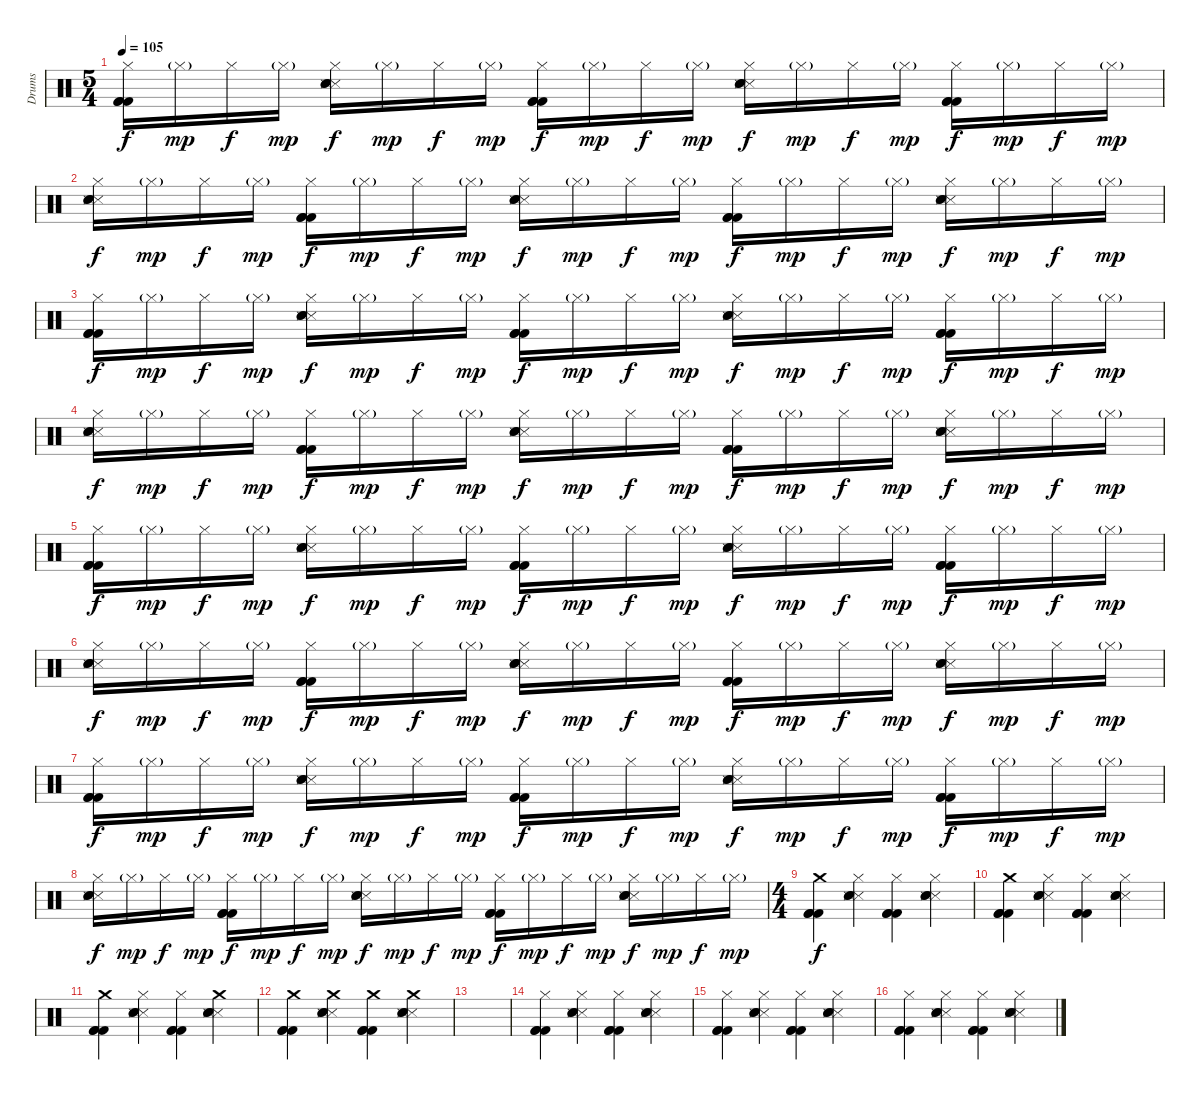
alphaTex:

\track ("Drums" "Drums") {instrument percussion}
\staff {score}
\articulation defaults
\ts (5 4)
\tempo 105
\clef neutral
\ks c
("Hi-Hat (closed)" "Kick (hit) 2" "Kick (hit) 2" "Kick (hit) 2").16{dy f} "Hi-Hat (closed)"{g}.16{dy mp} "Hi-Hat (closed)".16{dy f} "Hi-Hat (closed)"{g}.16{dy mp} ("Hi-Hat (closed)" "Snare (side stick) 3" "Snare (side stick) 3" "Electric Snare (hit)" "Snare (hit) 2").16{dy f} "Hi-Hat (closed)"{g}.16{dy mp} "Hi-Hat (closed)".16{dy f} "Hi-Hat (closed)"{g}.16{dy mp} ("Hi-Hat (closed)" "Kick (hit) 2" "Kick (hit) 2" "Kick (hit) 2").16{dy f} "Hi-Hat (closed)"{g}.16{dy mp} "Hi-Hat (closed)".16{dy f} "Hi-Hat (closed)"{g}.16{dy mp} ("Hi-Hat (closed)" "Snare (side stick) 3" "Snare (side stick) 3" "Electric Snare (hit)" "Snare (hit) 2").16{dy f} "Hi-Hat (closed)"{g}.16{dy mp} "Hi-Hat (closed)".16{dy f} "Hi-Hat (closed)"{g}.16{dy mp} ("Hi-Hat (closed)" "Kick (hit) 2" "Kick (hit) 2" "Kick (hit) 2").16{dy f} "Hi-Hat (closed)"{g}.16{dy mp} "Hi-Hat (closed)".16{dy f} "Hi-Hat (closed)"{g}.16{dy mp} |
("Hi-Hat (closed)" "Snare (side stick) 3" "Snare (side stick) 3" "Snare (hit) 2" "Electric Snare (hit)").16{dy f} "Hi-Hat (closed)"{g}.16{dy mp} "Hi-Hat (closed)".16{dy f} "Hi-Hat (closed)"{g}.16{dy mp} ("Hi-Hat (closed)" "Kick (hit) 2" "Kick (hit) 2" "Kick (hit) 2").16{dy f} "Hi-Hat (closed)"{g}.16{dy mp} "Hi-Hat (closed)".16{dy f} "Hi-Hat (closed)"{g}.16{dy mp} ("Hi-Hat (closed)" "Snare (side stick) 3" "Snare (side stick) 3" "Snare (hit) 2" "Electric Snare (hit)").16{dy f} "Hi-Hat (closed)"{g}.16{dy mp} "Hi-Hat (closed)".16{dy f} "Hi-Hat (closed)"{g}.16{dy mp} ("Hi-Hat (closed)" "Kick (hit) 2" "Kick (hit) 2" "Kick (hit) 2").16{dy f} "Hi-Hat (closed)"{g}.16{dy mp} "Hi-Hat (closed)".16{dy f} "Hi-Hat (closed)"{g}.16{dy mp} ("Hi-Hat (closed)" "Snare (side stick) 3" "Snare (side stick) 3" "Snare (hit) 2" "Electric Snare (hit)").16{dy f} "Hi-Hat (closed)"{g}.16{dy mp} "Hi-Hat (closed)".16{dy f} "Hi-Hat (closed)"{g}.16{dy mp} |
("Hi-Hat (closed)" "Kick (hit) 2" "Kick (hit) 2" "Kick (hit) 2").16{dy f} "Hi-Hat (closed)"{g}.16{dy mp} "Hi-Hat (closed)".16{dy f} "Hi-Hat (closed)"{g}.16{dy mp} ("Hi-Hat (closed)" "Snare (side stick) 3" "Snare (side stick) 3" "Electric Snare (hit)" "Snare (hit) 2").16{dy f} "Hi-Hat (closed)"{g}.16{dy mp} "Hi-Hat (closed)".16{dy f} "Hi-Hat (closed)"{g}.16{dy mp} ("Hi-Hat (closed)" "Kick (hit) 2" "Kick (hit) 2" "Kick (hit) 2").16{dy f} "Hi-Hat (closed)"{g}.16{dy mp} "Hi-Hat (closed)".16{dy f} "Hi-Hat (closed)"{g}.16{dy mp} ("Hi-Hat (closed)" "Snare (side stick) 3" "Snare (side stick) 3" "Electric Snare (hit)" "Snare (hit) 2").16{dy f} "Hi-Hat (closed)"{g}.16{dy mp} "Hi-Hat (closed)".16{dy f} "Hi-Hat (closed)"{g}.16{dy mp} ("Hi-Hat (closed)" "Kick (hit) 2" "Kick (hit) 2" "Kick (hit) 2").16{dy f} "Hi-Hat (closed)"{g}.16{dy mp} "Hi-Hat (closed)".16{dy f} "Hi-Hat (closed)"{g}.16{dy mp} |
("Hi-Hat (closed)" "Snare (side stick) 3" "Snare (side stick) 3" "Snare (hit) 2" "Electric Snare (hit)").16{dy f} "Hi-Hat (closed)"{g}.16{dy mp} "Hi-Hat (closed)".16{dy f} "Hi-Hat (closed)"{g}.16{dy mp} ("Hi-Hat (closed)" "Kick (hit) 2" "Kick (hit) 2" "Kick (hit) 2").16{dy f} "Hi-Hat (closed)"{g}.16{dy mp} "Hi-Hat (closed)".16{dy f} "Hi-Hat (closed)"{g}.16{dy mp} ("Hi-Hat (closed)" "Snare (side stick) 3" "Snare (side stick) 3" "Snare (hit) 2" "Electric Snare (hit)").16{dy f} "Hi-Hat (closed)"{g}.16{dy mp} "Hi-Hat (closed)".16{dy f} "Hi-Hat (closed)"{g}.16{dy mp} ("Hi-Hat (closed)" "Kick (hit) 2" "Kick (hit) 2" "Kick (hit) 2").16{dy f} "Hi-Hat (closed)"{g}.16{dy mp} "Hi-Hat (closed)".16{dy f} "Hi-Hat (closed)"{g}.16{dy mp} ("Hi-Hat (closed)" "Snare (side stick) 3" "Snare (side stick) 3" "Snare (hit) 2" "Electric Snare (hit)").16{dy f} "Hi-Hat (closed)"{g}.16{dy mp} "Hi-Hat (closed)".16{dy f} "Hi-Hat (closed)"{g}.16{dy mp} |
("Hi-Hat (closed)" "Kick (hit) 2" "Kick (hit) 2" "Kick (hit) 2").16{dy f} "Hi-Hat (closed)"{g}.16{dy mp} "Hi-Hat (closed)".16{dy f} "Hi-Hat (closed)"{g}.16{dy mp} ("Hi-Hat (closed)" "Snare (side stick) 3" "Snare (side stick) 3" "Electric Snare (hit)" "Snare (hit) 2").16{dy f} "Hi-Hat (closed)"{g}.16{dy mp} "Hi-Hat (closed)".16{dy f} "Hi-Hat (closed)"{g}.16{dy mp} ("Hi-Hat (closed)" "Kick (hit) 2" "Kick (hit) 2" "Kick (hit) 2").16{dy f} "Hi-Hat (closed)"{g}.16{dy mp} "Hi-Hat (closed)".16{dy f} "Hi-Hat (closed)"{g}.16{dy mp} ("Hi-Hat (closed)" "Snare (side stick) 3" "Snare (side stick) 3" "Electric Snare (hit)" "Snare (hit) 2").16{dy f} "Hi-Hat (closed)"{g}.16{dy mp} "Hi-Hat (closed)".16{dy f} "Hi-Hat (closed)"{g}.16{dy mp} ("Hi-Hat (closed)" "Kick (hit) 2" "Kick (hit) 2" "Kick (hit) 2").16{dy f} "Hi-Hat (closed)"{g}.16{dy mp} "Hi-Hat (closed)".16{dy f} "Hi-Hat (closed)"{g}.16{dy mp} |
("Hi-Hat (closed)" "Snare (side stick) 3" "Snare (side stick) 3" "Snare (hit) 2" "Electric Snare (hit)").16{dy f} "Hi-Hat (closed)"{g}.16{dy mp} "Hi-Hat (closed)".16{dy f} "Hi-Hat (closed)"{g}.16{dy mp} ("Hi-Hat (closed)" "Kick (hit) 2" "Kick (hit) 2" "Kick (hit) 2").16{dy f} "Hi-Hat (closed)"{g}.16{dy mp} "Hi-Hat (closed)".16{dy f} "Hi-Hat (closed)"{g}.16{dy mp} ("Hi-Hat (closed)" "Snare (side stick) 3" "Snare (side stick) 3" "Snare (hit) 2" "Electric Snare (hit)").16{dy f} "Hi-Hat (closed)"{g}.16{dy mp} "Hi-Hat (closed)".16{dy f} "Hi-Hat (closed)"{g}.16{dy mp} ("Hi-Hat (closed)" "Kick (hit) 2" "Kick (hit) 2" "Kick (hit) 2").16{dy f} "Hi-Hat (closed)"{g}.16{dy mp} "Hi-Hat (closed)".16{dy f} "Hi-Hat (closed)"{g}.16{dy mp} ("Hi-Hat (closed)" "Snare (side stick) 3" "Snare (side stick) 3" "Snare (hit) 2" "Electric Snare (hit)").16{dy f} "Hi-Hat (closed)"{g}.16{dy mp} "Hi-Hat (closed)".16{dy f} "Hi-Hat (closed)"{g}.16{dy mp} |
("Hi-Hat (closed)" "Kick (hit) 2" "Kick (hit) 2" "Kick (hit) 2").16{dy f} "Hi-Hat (closed)"{g}.16{dy mp} "Hi-Hat (closed)".16{dy f} "Hi-Hat (closed)"{g}.16{dy mp} ("Hi-Hat (closed)" "Snare (side stick) 3" "Snare (side stick) 3" "Electric Snare (hit)" "Snare (hit) 2").16{dy f} "Hi-Hat (closed)"{g}.16{dy mp} "Hi-Hat (closed)".16{dy f} "Hi-Hat (closed)"{g}.16{dy mp} ("Hi-Hat (closed)" "Kick (hit) 2" "Kick (hit) 2" "Kick (hit) 2").16{dy f} "Hi-Hat (closed)"{g}.16{dy mp} "Hi-Hat (closed)".16{dy f} "Hi-Hat (closed)"{g}.16{dy mp} ("Hi-Hat (closed)" "Snare (side stick) 3" "Snare (side stick) 3" "Electric Snare (hit)" "Snare (hit) 2").16{dy f} "Hi-Hat (closed)"{g}.16{dy mp} "Hi-Hat (closed)".16{dy f} "Hi-Hat (closed)"{g}.16{dy mp} ("Hi-Hat (closed)" "Kick (hit) 2" "Kick (hit) 2" "Kick (hit) 2").16{dy f} "Hi-Hat (closed)"{g}.16{dy mp} "Hi-Hat (closed)".16{dy f} "Hi-Hat (closed)"{g}.16{dy mp} |
("Hi-Hat (closed)" "Snare (side stick) 3" "Snare (side stick) 3" "Snare (hit) 2" "Electric Snare (hit)").16{dy f} "Hi-Hat (closed)"{g}.16{dy mp} "Hi-Hat (closed)".16{dy f} "Hi-Hat (closed)"{g}.16{dy mp} ("Hi-Hat (closed)" "Kick (hit) 2" "Kick (hit) 2" "Kick (hit) 2").16{dy f} "Hi-Hat (closed)"{g}.16{dy mp} "Hi-Hat (closed)".16{dy f} "Hi-Hat (closed)"{g}.16{dy mp} ("Hi-Hat (closed)" "Snare (side stick) 3" "Snare (side stick) 3" "Snare (hit) 2" "Electric Snare (hit)").16{dy f} "Hi-Hat (closed)"{g}.16{dy mp} "Hi-Hat (closed)".16{dy f} "Hi-Hat (closed)"{g}.16{dy mp} ("Hi-Hat (closed)" "Kick (hit) 2" "Kick (hit) 2" "Kick (hit) 2").16{dy f} "Hi-Hat (closed)"{g}.16{dy mp} "Hi-Hat (closed)".16{dy f} "Hi-Hat (closed)"{g}.16{dy mp} ("Hi-Hat (closed)" "Snare (side stick) 3" "Snare (side stick) 3" "Snare (hit) 2" "Electric Snare (hit)").16{dy f} "Hi-Hat (closed)"{g}.16{dy mp} "Hi-Hat (closed)".16{dy f} "Hi-Hat (closed)"{g}.16{dy mp} |
\ts (4 4)
("Crash medium (hit)" "Kick (hit) 2" "Kick (hit) 2" "Kick (hit) 2").4{dy f} ("Hi-Hat (closed)" "Snare (side stick) 3" "Snare (side stick) 3" "Snare (hit) 2" "Electric Snare (hit)").4 ("Hi-Hat (closed)" "Kick (hit) 2" "Kick (hit) 2" "Kick (hit) 2").4 ("Hi-Hat (closed)" "Snare (side stick) 3" "Snare (side stick) 3" "Snare (hit) 2" "Electric Snare (hit)").4 |
("Crash medium (hit)" "Kick (hit) 2" "Kick (hit) 2" "Kick (hit) 2").4 ("Hi-Hat (closed)" "Snare (side stick) 3" "Snare (side stick) 3" "Snare (hit) 2" "Electric Snare (hit)").4 ("Hi-Hat (closed)" "Kick (hit) 2" "Kick (hit) 2" "Kick (hit) 2").4 ("Hi-Hat (closed)" "Snare (side stick) 3" "Snare (side stick) 3" "Snare (hit) 2" "Electric Snare (hit)").4 |
("Crash medium (hit)" "Kick (hit) 2" "Kick (hit) 2" "Kick (hit) 2").4 ("Hi-Hat (closed)" "Snare (side stick) 3" "Snare (side stick) 3" "Snare (hit) 2" "Electric Snare (hit)").4 ("Hi-Hat (closed)" "Kick (hit) 2" "Kick (hit) 2" "Kick (hit) 2").4 ("Crash medium (hit)" "Snare (side stick) 3" "Snare (side stick) 3" "Snare (hit) 2" "Electric Snare (hit)").4 |
("Crash medium (hit)" "Kick (hit) 2" "Kick (hit) 2" "Kick (hit) 2").4 ("Crash medium (hit)" "Snare (side stick) 3" "Snare (side stick) 3" "Snare (hit) 2" "Electric Snare (hit)").4 ("Crash medium (hit)" "Kick (hit) 2" "Kick (hit) 2" "Kick (hit) 2").4 ("Crash medium (hit)" "Snare (side stick) 3" "Snare (side stick) 3" "Snare (hit) 2" "Electric Snare (hit)").4 |
|
("Hi-Hat (closed)" "Kick (hit) 2" "Kick (hit) 2" "Kick (hit) 2").4 ("Hi-Hat (closed)" "Snare (side stick) 3" "Snare (side stick) 3" "Snare (hit) 2" "Electric Snare (hit)").4 ("Hi-Hat (closed)" "Kick (hit) 2" "Kick (hit) 2" "Kick (hit) 2").4 ("Hi-Hat (closed)" "Snare (side stick) 3" "Snare (side stick) 3" "Snare (hit) 2" "Electric Snare (hit)").4 |
("Hi-Hat (closed)" "Kick (hit) 2" "Kick (hit) 2" "Kick (hit) 2").4 ("Hi-Hat (closed)" "Snare (side stick) 3" "Snare (side stick) 3" "Snare (hit) 2" "Electric Snare (hit)").4 ("Hi-Hat (closed)" "Kick (hit) 2" "Kick (hit) 2" "Kick (hit) 2").4 ("Hi-Hat (closed)" "Snare (side stick) 3" "Snare (side stick) 3" "Snare (hit) 2" "Electric Snare (hit)").4 |
("Hi-Hat (closed)" "Kick (hit) 2" "Kick (hit) 2" "Kick (hit) 2").4 ("Hi-Hat (closed)" "Snare (side stick) 3" "Snare (side stick) 3" "Snare (hit) 2" "Electric Snare (hit)").4 ("Hi-Hat (closed)" "Kick (hit) 2" "Kick (hit) 2" "Kick (hit) 2").4 ("Hi-Hat (closed)" "Snare (side stick) 3" "Snare (side stick) 3" "Snare (hit) 2" "Electric Snare (hit)").4
